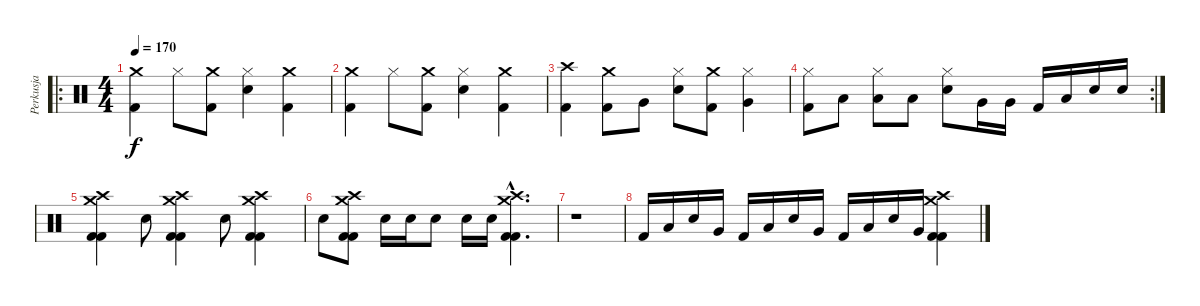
\track ("Perkusja" "Perkusja") {instrument percussion}
\staff {score}
\articulation defaults
\ro
\ts (4 4)
\tempo 170
\clef neutral
\ks c
("Crash medium (hit)" "Kick (hit) 2").4{dy f} "Hi-Hat (closed)".8 ("Crash medium (hit)" "Kick (hit) 2").8 ("Hi-Hat (closed)" "Snare (hit) 2").4 ("Crash medium (hit)" "Kick (hit) 2").4 |
("Crash medium (hit)" "Kick (hit) 2").4 "Hi-Hat (closed)".8 ("Crash medium (hit)" "Kick (hit) 2").8 ("Hi-Hat (closed)" "Snare (hit) 2").4 ("Crash medium (hit)" "Kick (hit) 2").4 |
("Crash high (hit)" "Kick (hit) 2").4 ("Crash medium (hit)" "Kick (hit) 2").8 "Very Low Tom (hit)".8 ("Hi-Hat (closed)" "Snare (hit) 2").8 ("Crash medium (hit)" "Kick (hit) 2").8 ("Hi-Hat (closed)" "Very Low Tom (hit)").4 |
\rc 2
("Hi-Hat (closed)" "Kick (hit) 2").8 "Low Tom (hit)".8 ("Hi-Hat (closed)" "Low Tom (hit)").8 "Low Tom (hit)".8 ("Hi-Hat (closed)" "Snare (hit) 2").8 "Very Low Tom (hit)".16 "Very Low Tom (hit)".16 "Kick (hit) 2".16 "Low Tom (hit)".16 "Snare (hit) 2".16 "Snare (hit) 2".16 |
("Crash high (hit)" "Crash medium (hit)" "Kick (hit) 2" "Kick (hit) 2").4 "Snare (hit) 2".8 ("Crash high (hit)" "Crash medium (hit)" "Kick (hit) 2" "Kick (hit) 2").4 "Snare (hit) 2".8 ("Crash high (hit)" "Crash medium (hit)" "Kick (hit) 2" "Kick (hit) 2").4 |
"Snare (hit) 2".8 ("Crash high (hit)" "Crash medium (hit)" "Kick (hit) 2" "Kick (hit) 2").8 "Snare (hit) 2".16 "Snare (hit) 2".16 "Snare (hit) 2".8 "Snare (hit) 2".16 "Snare (hit) 2".16 ("Crash high (hit)"{hac} "Crash medium (hit)"{hac} "Kick (hit) 2"{hac} "Kick (hit) 2"{hac}).4{d} |
r.1 |
"Kick (hit) 2".16 "Low Tom (hit)".16 "Snare (hit) 2".16 "Very Low Tom (hit)".16 "Kick (hit) 2".16 "Low Tom (hit)".16 "Snare (hit) 2".16 "Very Low Tom (hit)".16 "Kick (hit) 2".16 "Low Tom (hit)".16 "Snare (hit) 2".16 "Very Low Tom (hit)".16 ("Crash high (hit)" "Crash medium (hit)" "Kick (hit) 2" "Kick (hit) 2").4
